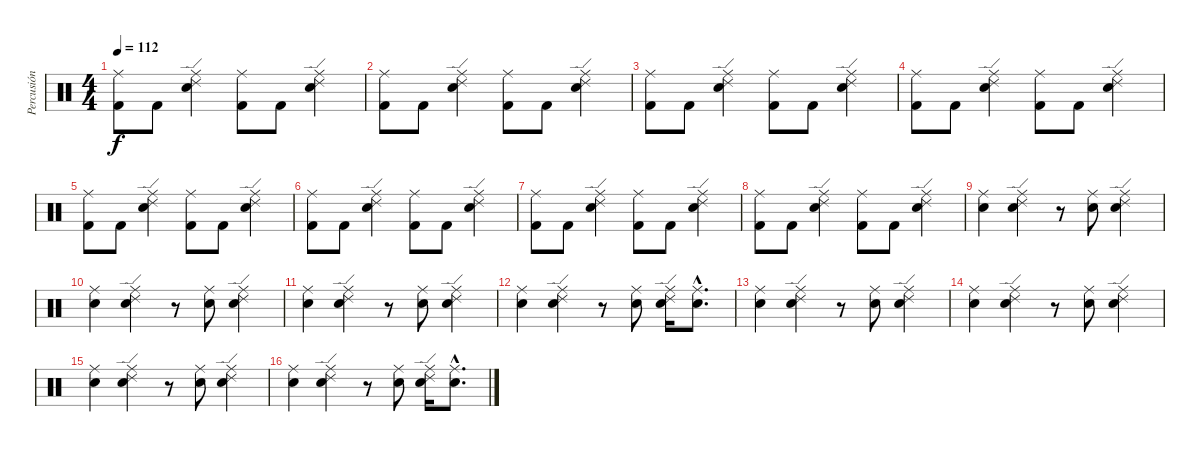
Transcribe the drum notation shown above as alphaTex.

\track ("Percusión" "Percusión") {instrument percussion}
\staff {score}
\articulation defaults
\ts (4 4)
\tempo 112
\clef neutral
\ks c
("Ride (middle)" "Kick (hit) 2").8{dy f} "Kick (hit) 2".8 ("Ride (edge) 2" "Ride (middle)" "Snare (hit) 2").4 ("Ride (middle)" "Kick (hit) 2").8 "Kick (hit) 2".8 ("Ride (edge) 2" "Ride (middle)" "Snare (hit) 2").4 |
("Ride (middle)" "Kick (hit) 2").8 "Kick (hit) 2".8 ("Ride (edge) 2" "Ride (middle)" "Snare (hit) 2").4 ("Ride (middle)" "Kick (hit) 2").8 "Kick (hit) 2".8 ("Ride (edge) 2" "Ride (middle)" "Snare (hit) 2").4 |
("Ride (middle)" "Kick (hit) 2").8 "Kick (hit) 2".8 ("Ride (edge) 2" "Ride (middle)" "Snare (hit) 2").4 ("Ride (middle)" "Kick (hit) 2").8 "Kick (hit) 2".8 ("Ride (edge) 2" "Ride (middle)" "Snare (hit) 2").4 |
("Ride (middle)" "Kick (hit) 2").8 "Kick (hit) 2".8 ("Ride (edge) 2" "Ride (middle)" "Snare (hit) 2").4 ("Ride (middle)" "Kick (hit) 2").8 "Kick (hit) 2".8 ("Ride (edge) 2" "Ride (middle)" "Snare (hit) 2").4 |
("Ride (middle)" "Kick (hit) 2").8 "Kick (hit) 2".8 ("Ride (edge) 2" "Ride (middle)" "Snare (hit) 2").4 ("Ride (middle)" "Kick (hit) 2").8 "Kick (hit) 2".8 ("Ride (edge) 2" "Ride (middle)" "Snare (hit) 2").4 |
("Ride (middle)" "Kick (hit) 2").8 "Kick (hit) 2".8 ("Ride (edge) 2" "Ride (middle)" "Snare (hit) 2").4 ("Ride (middle)" "Kick (hit) 2").8 "Kick (hit) 2".8 ("Ride (edge) 2" "Ride (middle)" "Snare (hit) 2").4 |
("Ride (middle)" "Kick (hit) 2").8 "Kick (hit) 2".8 ("Ride (edge) 2" "Ride (middle)" "Snare (hit) 2").4 ("Ride (middle)" "Kick (hit) 2").8 "Kick (hit) 2".8 ("Ride (edge) 2" "Ride (middle)" "Snare (hit) 2").4 |
("Ride (middle)" "Kick (hit) 2").8 "Kick (hit) 2".8 ("Ride (edge) 2" "Ride (middle)" "Snare (hit) 2").4 ("Ride (middle)" "Kick (hit) 2").8 "Kick (hit) 2".8 ("Ride (edge) 2" "Ride (middle)" "Snare (hit) 2").4 |
("Ride (middle)" "Electric Snare (hit)").4 ("Ride (edge) 2" "Ride (middle)" "Snare (hit) 2").4 r.8 ("Ride (middle)" "Electric Snare (hit)").8 ("Ride (edge) 2" "Ride (middle)" "Snare (hit) 2").4 |
("Ride (middle)" "Electric Snare (hit)").4 ("Ride (edge) 2" "Ride (middle)" "Snare (hit) 2").4 r.8 ("Ride (middle)" "Electric Snare (hit)").8 ("Ride (edge) 2" "Ride (middle)" "Snare (hit) 2").4 |
("Ride (middle)" "Electric Snare (hit)").4 ("Ride (edge) 2" "Ride (middle)" "Snare (hit) 2").4 r.8 ("Ride (middle)" "Electric Snare (hit)").8 ("Ride (edge) 2" "Ride (middle)" "Snare (hit) 2").4 |
("Ride (middle)" "Electric Snare (hit)").4 ("Ride (edge) 2" "Ride (middle)" "Snare (hit) 2").4 r.8 ("Ride (middle)" "Electric Snare (hit)").8 ("Ride (edge) 2" "Ride (middle)" "Snare (hit) 2").16 ("Ride (middle)"{hac} "Electric Snare (hit)"{hac}).8{d} |
("Ride (middle)" "Electric Snare (hit)").4 ("Ride (edge) 2" "Ride (middle)" "Snare (hit) 2").4 r.8 ("Ride (middle)" "Electric Snare (hit)").8 ("Ride (edge) 2" "Ride (middle)" "Snare (hit) 2").4 |
("Ride (middle)" "Electric Snare (hit)").4 ("Ride (edge) 2" "Ride (middle)" "Snare (hit) 2").4 r.8 ("Ride (middle)" "Electric Snare (hit)").8 ("Ride (edge) 2" "Ride (middle)" "Snare (hit) 2").4 |
("Ride (middle)" "Electric Snare (hit)").4 ("Ride (edge) 2" "Ride (middle)" "Snare (hit) 2").4 r.8 ("Ride (middle)" "Electric Snare (hit)").8 ("Ride (edge) 2" "Ride (middle)" "Snare (hit) 2").4 |
("Ride (middle)" "Electric Snare (hit)").4 ("Ride (edge) 2" "Ride (middle)" "Snare (hit) 2").4 r.8 ("Ride (middle)" "Electric Snare (hit)").8 ("Ride (edge) 2" "Ride (middle)" "Snare (hit) 2").16 ("Ride (middle)"{hac} "Electric Snare (hit)"{hac}).8{d}
